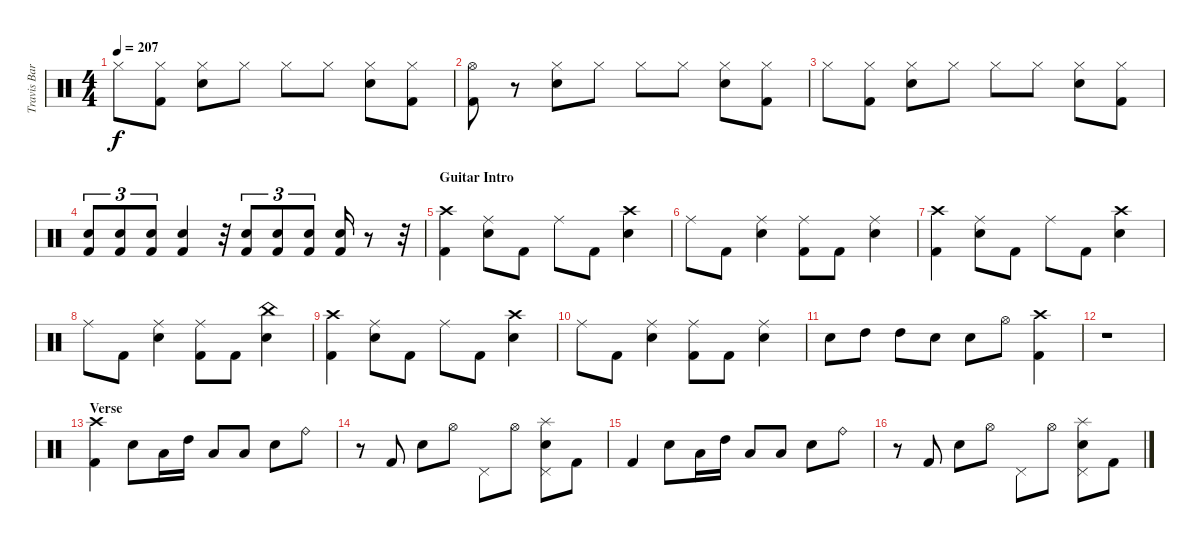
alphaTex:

\track ("Travis Barker" "Travis Bar") {instrument percussion}
\staff {score}
\articulation defaults
\ts (4 4)
\tempo 207
\clef neutral
\ks c "Hi-Hat (closed)".8{dy f}
("Hi-Hat (closed)" "Kick (hit) 2").8 ("Hi-Hat (closed)" "Electric Snare (hit)").8 "Hi-Hat (closed)".8 "Hi-Hat (closed)".8 "Hi-Hat (closed)".8 ("Hi-Hat (closed)" "Electric Snare (hit)").8 ("Hi-Hat (closed)" "Kick (hit) 2").8 |
("Hi-Hat (open)" "Kick (hit) 2").8 r.8 ("Hi-Hat (closed)" "Electric Snare (hit)").8 "Hi-Hat (closed)".8 "Hi-Hat (closed)".8 "Hi-Hat (closed)".8 ("Hi-Hat (closed)" "Electric Snare (hit)").8 ("Hi-Hat (closed)" "Kick (hit) 2").8 |
"Hi-Hat (closed)".8 ("Hi-Hat (closed)" "Kick (hit) 2").8 ("Hi-Hat (closed)" "Electric Snare (hit)").8 "Hi-Hat (closed)".8 "Hi-Hat (closed)".8 "Hi-Hat (closed)".8 ("Hi-Hat (closed)" "Electric Snare (hit)").8 ("Hi-Hat (closed)" "Kick (hit) 2").8 |
("Kick (hit) 2" "Snare (hit) 2").8{tu (3 2)} ("Kick (hit) 2" "Snare (hit) 2").8{tu (3 2)} ("Kick (hit) 2" "Snare (hit) 2").8{tu (3 2)} ("Kick (hit) 2" "Snare (hit) 2").4 r.32 ("Kick (hit) 2" "Snare (hit) 2").8{tu (3 2)} ("Kick (hit) 2" "Snare (hit) 2").8{tu (3 2)} ("Kick (hit) 2" "Snare (hit) 2").8{tu (3 2)} ("Kick (hit) 2" "Snare (hit) 2").16 r.8 r.32 |
\section ("" "Guitar Intro")
("Crash high (hit)" "Kick (hit) 2").4 ("Ride (middle)" "Electric Snare (hit)").8 "Kick (hit) 2".8 "Ride (middle)".8 "Kick (hit) 2".8 ("Crash high (hit)" "Electric Snare (hit)").4 |
"Ride (middle)".8 "Kick (hit) 2".8 ("Ride (middle)" "Electric Snare (hit)").4 ("Ride (middle)" "Kick (hit) 2").8 "Kick (hit) 2".8 ("Ride (middle)" "Electric Snare (hit)").4 |
("Crash high (hit)" "Kick (hit) 2").4 ("Ride (middle)" "Electric Snare (hit)").8 "Kick (hit) 2".8 "Ride (middle)".8 "Kick (hit) 2".8 ("Crash high (hit)" "Electric Snare (hit)").4 |
"Ride (middle)".8 "Kick (hit) 2".8 ("Ride (middle)" "Electric Snare (hit)").4 ("Ride (middle)" "Kick (hit) 2").8 "Kick (hit) 2".8 ("China (hit)" "Electric Snare (hit)").4 |
("Crash high (hit)" "Kick (hit) 2").4 ("Ride (middle)" "Electric Snare (hit)").8 "Kick (hit) 2".8 "Ride (middle)".8 "Kick (hit) 2".8 ("Crash high (hit)" "Electric Snare (hit)").4 |
"Ride (middle)".8 "Kick (hit) 2".8 ("Ride (middle)" "Electric Snare (hit)").4 ("Ride (middle)" "Kick (hit) 2").8 "Kick (hit) 2".8 ("Ride (middle)" "Electric Snare (hit)").4 |
"Electric Snare (hit)".8 "High Tom (hit)".8 "High Tom (hit)".8 "Electric Snare (hit)".8 "Electric Snare (hit)".8 "Hi-Hat (open)".8 ("Crash high (hit)" "Kick (hit) 2").4 |
r.1 |
\section ("" "Verse")
("Crash high (hit)" "Kick (hit) 2").4 "Electric Snare (hit)".8 "Low Tom (hit)".16 "High Tom (hit)".16 "Low Tom (hit)".8 "Low Tom (hit)".8 "Electric Snare (hit)".8 "Ride (bell)".8 |
r.8 "Kick (hit) 2".8 "Electric Snare (hit)".8 "Hi-Hat (open)".8 "Pedal Hi-Hat (hit)".8 "Hi-Hat (open)".8 ("Pedal Hi-Hat (hit)" "Splash (hit)" "Electric Snare (hit)").8 "Kick (hit) 2".8 |
"Kick (hit) 2".4 "Electric Snare (hit)".8 "Low Tom (hit)".16 "High Tom (hit)".16 "Low Tom (hit)".8 "Low Tom (hit)".8 "Electric Snare (hit)".8 "Ride (bell)".8 |
r.8 "Kick (hit) 2".8 "Electric Snare (hit)".8 "Hi-Hat (open)".8 "Pedal Hi-Hat (hit)".8 "Hi-Hat (open)".8 ("Pedal Hi-Hat (hit)" "Splash (hit)" "Electric Snare (hit)").8 "Kick (hit) 2".8
